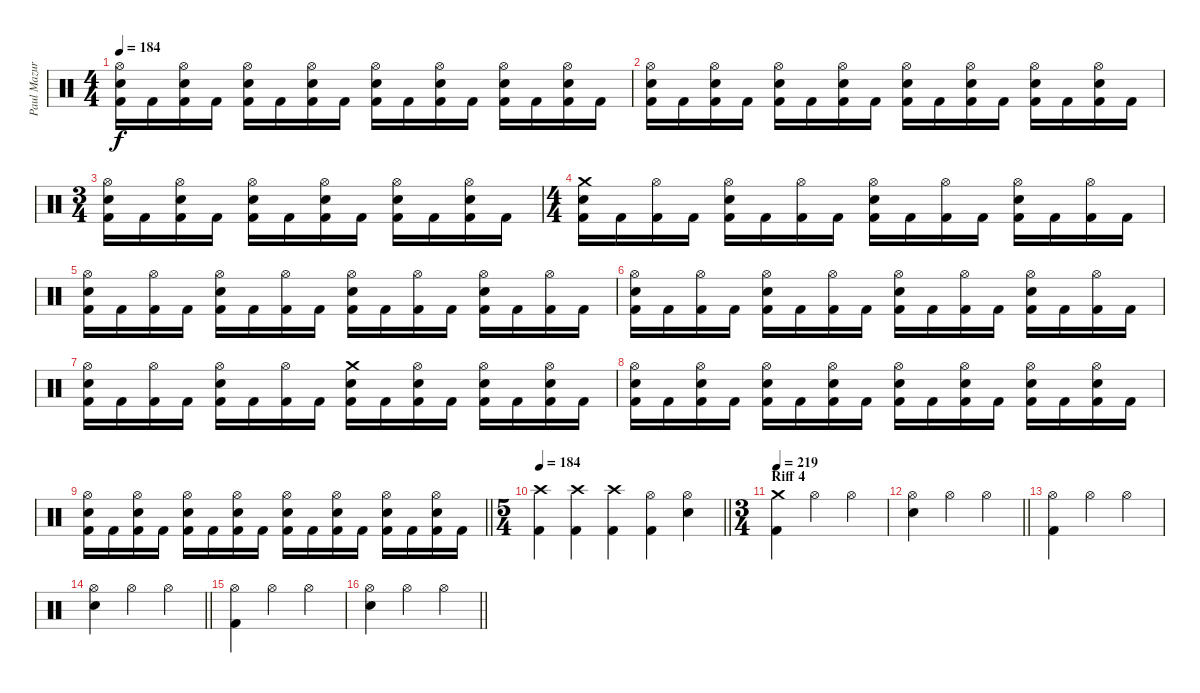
\track ("Paul Mazurkiewicz" "Paul Mazur") {instrument percussion}
\staff {score}
\articulation defaults
\ts (4 4)
\tempo 184
\clef neutral
\ks c
("Hi-Hat (open)" "Electric Snare (hit)" "Kick (hit) 2").16{dy f} "Kick (hit) 2".16 ("Hi-Hat (open)" "Electric Snare (hit)" "Kick (hit) 2").16 "Kick (hit) 2".16 ("Hi-Hat (open)" "Electric Snare (hit)" "Kick (hit) 2").16 "Kick (hit) 2".16 ("Hi-Hat (open)" "Electric Snare (hit)" "Kick (hit) 2").16 "Kick (hit) 2".16 ("Hi-Hat (open)" "Electric Snare (hit)" "Kick (hit) 2").16 "Kick (hit) 2".16 ("Hi-Hat (open)" "Electric Snare (hit)" "Kick (hit) 2").16 "Kick (hit) 2".16 ("Hi-Hat (open)" "Electric Snare (hit)" "Kick (hit) 2").16 "Kick (hit) 2".16 ("Hi-Hat (open)" "Electric Snare (hit)" "Kick (hit) 2").16 "Kick (hit) 2".16 |
("Hi-Hat (open)" "Electric Snare (hit)" "Kick (hit) 2").16 "Kick (hit) 2".16 ("Hi-Hat (open)" "Electric Snare (hit)" "Kick (hit) 2").16 "Kick (hit) 2".16 ("Hi-Hat (open)" "Electric Snare (hit)" "Kick (hit) 2").16 "Kick (hit) 2".16 ("Hi-Hat (open)" "Electric Snare (hit)" "Kick (hit) 2").16 "Kick (hit) 2".16 ("Hi-Hat (open)" "Electric Snare (hit)" "Kick (hit) 2").16 "Kick (hit) 2".16 ("Hi-Hat (open)" "Electric Snare (hit)" "Kick (hit) 2").16 "Kick (hit) 2".16 ("Hi-Hat (open)" "Electric Snare (hit)" "Kick (hit) 2").16 "Kick (hit) 2".16 ("Hi-Hat (open)" "Electric Snare (hit)" "Kick (hit) 2").16 "Kick (hit) 2".16 |
\ts (3 4)
("Hi-Hat (open)" "Electric Snare (hit)" "Kick (hit) 2").16 "Kick (hit) 2".16 ("Hi-Hat (open)" "Electric Snare (hit)" "Kick (hit) 2").16 "Kick (hit) 2".16 ("Hi-Hat (open)" "Electric Snare (hit)" "Kick (hit) 2").16 "Kick (hit) 2".16 ("Hi-Hat (open)" "Electric Snare (hit)" "Kick (hit) 2").16 "Kick (hit) 2".16 ("Hi-Hat (open)" "Electric Snare (hit)" "Kick (hit) 2").16 "Kick (hit) 2".16 ("Hi-Hat (open)" "Electric Snare (hit)" "Kick (hit) 2").16 "Kick (hit) 2".16 |
\ts (4 4)
("Crash medium (hit)" "Electric Snare (hit)" "Kick (hit) 2").16 "Kick (hit) 2".16 ("Hi-Hat (open)" "Kick (hit) 2").16 "Kick (hit) 2".16 ("Hi-Hat (open)" "Electric Snare (hit)" "Kick (hit) 2").16 "Kick (hit) 2".16 ("Hi-Hat (open)" "Kick (hit) 2").16 "Kick (hit) 2".16 ("Hi-Hat (open)" "Electric Snare (hit)" "Kick (hit) 2").16 "Kick (hit) 2".16 ("Hi-Hat (open)" "Kick (hit) 2").16 "Kick (hit) 2".16 ("Hi-Hat (open)" "Electric Snare (hit)" "Kick (hit) 2").16 "Kick (hit) 2".16 ("Hi-Hat (open)" "Kick (hit) 2").16 "Kick (hit) 2".16 |
("Hi-Hat (open)" "Electric Snare (hit)" "Kick (hit) 2").16 "Kick (hit) 2".16 ("Hi-Hat (open)" "Kick (hit) 2").16 "Kick (hit) 2".16 ("Hi-Hat (open)" "Electric Snare (hit)" "Kick (hit) 2").16 "Kick (hit) 2".16 ("Hi-Hat (open)" "Kick (hit) 2").16 "Kick (hit) 2".16 ("Hi-Hat (open)" "Electric Snare (hit)" "Kick (hit) 2").16 "Kick (hit) 2".16 ("Hi-Hat (open)" "Kick (hit) 2").16 "Kick (hit) 2".16 ("Hi-Hat (open)" "Electric Snare (hit)" "Kick (hit) 2").16 "Kick (hit) 2".16 ("Hi-Hat (open)" "Kick (hit) 2").16 "Kick (hit) 2".16 |
("Hi-Hat (open)" "Electric Snare (hit)" "Kick (hit) 2").16 "Kick (hit) 2".16 ("Hi-Hat (open)" "Kick (hit) 2").16 "Kick (hit) 2".16 ("Hi-Hat (open)" "Electric Snare (hit)" "Kick (hit) 2").16 "Kick (hit) 2".16 ("Hi-Hat (open)" "Kick (hit) 2").16 "Kick (hit) 2".16 ("Hi-Hat (open)" "Electric Snare (hit)" "Kick (hit) 2").16 "Kick (hit) 2".16 ("Hi-Hat (open)" "Kick (hit) 2").16 "Kick (hit) 2".16 ("Hi-Hat (open)" "Electric Snare (hit)" "Kick (hit) 2").16 "Kick (hit) 2".16 ("Hi-Hat (open)" "Kick (hit) 2").16 "Kick (hit) 2".16 |
("Hi-Hat (open)" "Electric Snare (hit)" "Kick (hit) 2").16 "Kick (hit) 2".16 ("Hi-Hat (open)" "Kick (hit) 2").16 "Kick (hit) 2".16 ("Hi-Hat (open)" "Electric Snare (hit)" "Kick (hit) 2").16 "Kick (hit) 2".16 ("Hi-Hat (open)" "Kick (hit) 2").16 "Kick (hit) 2".16 ("Crash medium (hit)" "Electric Snare (hit)" "Kick (hit) 2").16 "Kick (hit) 2".16 ("Hi-Hat (open)" "Electric Snare (hit)" "Kick (hit) 2").16 "Kick (hit) 2".16 ("Hi-Hat (open)" "Electric Snare (hit)" "Kick (hit) 2").16 "Kick (hit) 2".16 ("Hi-Hat (open)" "Electric Snare (hit)" "Kick (hit) 2").16 "Kick (hit) 2".16 |
("Hi-Hat (open)" "Electric Snare (hit)" "Kick (hit) 2").16 "Kick (hit) 2".16 ("Hi-Hat (open)" "Electric Snare (hit)" "Kick (hit) 2").16 "Kick (hit) 2".16 ("Hi-Hat (open)" "Electric Snare (hit)" "Kick (hit) 2").16 "Kick (hit) 2".16 ("Hi-Hat (open)" "Electric Snare (hit)" "Kick (hit) 2").16 "Kick (hit) 2".16 ("Hi-Hat (open)" "Electric Snare (hit)" "Kick (hit) 2").16 "Kick (hit) 2".16 ("Hi-Hat (open)" "Electric Snare (hit)" "Kick (hit) 2").16 "Kick (hit) 2".16 ("Hi-Hat (open)" "Electric Snare (hit)" "Kick (hit) 2").16 "Kick (hit) 2".16 ("Hi-Hat (open)" "Electric Snare (hit)" "Kick (hit) 2").16 "Kick (hit) 2".16 |
\barLineRight lightlight
("Hi-Hat (open)" "Electric Snare (hit)" "Kick (hit) 2").16 "Kick (hit) 2".16 ("Hi-Hat (open)" "Electric Snare (hit)" "Kick (hit) 2").16 "Kick (hit) 2".16 ("Hi-Hat (open)" "Electric Snare (hit)" "Kick (hit) 2").16 "Kick (hit) 2".16 ("Hi-Hat (open)" "Electric Snare (hit)" "Kick (hit) 2").16 "Kick (hit) 2".16 ("Hi-Hat (open)" "Electric Snare (hit)" "Kick (hit) 2").16 "Kick (hit) 2".16 ("Hi-Hat (open)" "Electric Snare (hit)" "Kick (hit) 2").16 "Kick (hit) 2".16 ("Hi-Hat (open)" "Electric Snare (hit)" "Kick (hit) 2").16 "Kick (hit) 2".16 ("Hi-Hat (open)" "Electric Snare (hit)" "Kick (hit) 2").16 "Kick (hit) 2".16 |
\ts (5 4)
\tempo 184
\barLineRight lightlight
("Crash high (hit)" "Kick (hit) 2").4 ("Crash high (hit)" "Kick (hit) 2").4 ("Crash high (hit)" "Kick (hit) 2").4 ("Hi-Hat (open)" "Kick (hit) 2").4 ("Hi-Hat (open)" "Electric Snare (hit)").4 |
\ts (3 4)
\section ("" "Riff 4")
\tempo 219
("Crash medium (hit)" "Kick (hit) 2").4 "Hi-Hat (open)".4 "Hi-Hat (open)".4 |
\barLineRight lightlight
("Hi-Hat (open)" "Electric Snare (hit)").4 "Hi-Hat (open)".4 "Hi-Hat (open)".4 |
("Hi-Hat (open)" "Kick (hit) 2").4 "Hi-Hat (open)".4 "Hi-Hat (open)".4 |
\barLineRight lightlight
("Hi-Hat (open)" "Electric Snare (hit)").4 "Hi-Hat (open)".4 "Hi-Hat (open)".4 |
("Hi-Hat (open)" "Kick (hit) 2").4 "Hi-Hat (open)".4 "Hi-Hat (open)".4 |
\barLineRight lightlight
("Hi-Hat (open)" "Electric Snare (hit)").4 "Hi-Hat (open)".4 "Hi-Hat (open)".4
